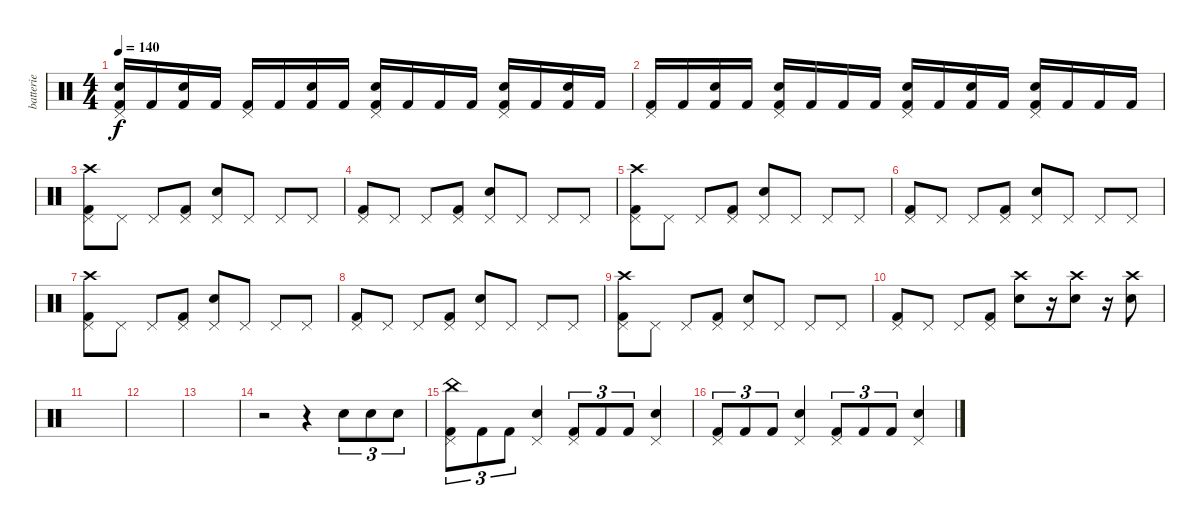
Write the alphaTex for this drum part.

\track ("batterie" "batterie") {instrument percussion}
\staff {score}
\articulation defaults
\ts (4 4)
\tempo 140
\clef neutral
\ks c
("Snare (hit) 2" "Kick (hit) 2" "Pedal Hi-Hat (hit)").16{dy f} "Kick (hit) 2".16 ("Snare (hit) 2" "Kick (hit) 2").16 "Kick (hit) 2".16 ("Kick (hit) 2" "Pedal Hi-Hat (hit)").16 "Kick (hit) 2".16 ("Snare (hit) 2" "Kick (hit) 2").16 "Kick (hit) 2".16 ("Snare (hit) 2" "Kick (hit) 2" "Pedal Hi-Hat (hit)").16 "Kick (hit) 2".16 "Kick (hit) 2".16 "Kick (hit) 2".16 ("Snare (hit) 2" "Kick (hit) 2" "Pedal Hi-Hat (hit)").16 "Kick (hit) 2".16 ("Snare (hit) 2" "Kick (hit) 2").16 "Kick (hit) 2".16 |
("Kick (hit) 2" "Pedal Hi-Hat (hit)").16 "Kick (hit) 2".16 ("Snare (hit) 2" "Kick (hit) 2").16 "Kick (hit) 2".16 ("Snare (hit) 2" "Kick (hit) 2" "Pedal Hi-Hat (hit)").16 "Kick (hit) 2".16 "Kick (hit) 2".16 "Kick (hit) 2".16 ("Snare (hit) 2" "Kick (hit) 2" "Pedal Hi-Hat (hit)").16 "Kick (hit) 2".16 ("Snare (hit) 2" "Kick (hit) 2").16 "Kick (hit) 2".16 ("Snare (hit) 2" "Kick (hit) 2" "Pedal Hi-Hat (hit)").16 "Kick (hit) 2".16 "Kick (hit) 2".16 "Kick (hit) 2".16 |
("Crash high (hit)" "Kick (hit) 2" "Pedal Hi-Hat (hit)").8 "Pedal Hi-Hat (hit)".8 "Pedal Hi-Hat (hit)".8 ("Kick (hit) 2" "Pedal Hi-Hat (hit)").8 ("Snare (hit) 2" "Pedal Hi-Hat (hit)").8 "Pedal Hi-Hat (hit)".8 "Pedal Hi-Hat (hit)".8 "Pedal Hi-Hat (hit)".8 |
("Kick (hit) 2" "Pedal Hi-Hat (hit)").8 "Pedal Hi-Hat (hit)".8 "Pedal Hi-Hat (hit)".8 ("Kick (hit) 2" "Pedal Hi-Hat (hit)").8 ("Snare (hit) 2" "Pedal Hi-Hat (hit)").8 "Pedal Hi-Hat (hit)".8 "Pedal Hi-Hat (hit)".8 "Pedal Hi-Hat (hit)".8 |
("Crash high (hit)" "Kick (hit) 2" "Pedal Hi-Hat (hit)").8 "Pedal Hi-Hat (hit)".8 "Pedal Hi-Hat (hit)".8 ("Kick (hit) 2" "Pedal Hi-Hat (hit)").8 ("Snare (hit) 2" "Pedal Hi-Hat (hit)").8 "Pedal Hi-Hat (hit)".8 "Pedal Hi-Hat (hit)".8 "Pedal Hi-Hat (hit)".8 |
("Kick (hit) 2" "Pedal Hi-Hat (hit)").8 "Pedal Hi-Hat (hit)".8 "Pedal Hi-Hat (hit)".8 ("Kick (hit) 2" "Pedal Hi-Hat (hit)").8 ("Snare (hit) 2" "Pedal Hi-Hat (hit)").8 "Pedal Hi-Hat (hit)".8 "Pedal Hi-Hat (hit)".8 "Pedal Hi-Hat (hit)".8 |
("Crash high (hit)" "Kick (hit) 2" "Pedal Hi-Hat (hit)").8 "Pedal Hi-Hat (hit)".8 "Pedal Hi-Hat (hit)".8 ("Kick (hit) 2" "Pedal Hi-Hat (hit)").8 ("Snare (hit) 2" "Pedal Hi-Hat (hit)").8 "Pedal Hi-Hat (hit)".8 "Pedal Hi-Hat (hit)".8 "Pedal Hi-Hat (hit)".8 |
("Kick (hit) 2" "Pedal Hi-Hat (hit)").8 "Pedal Hi-Hat (hit)".8 "Pedal Hi-Hat (hit)".8 ("Kick (hit) 2" "Pedal Hi-Hat (hit)").8 ("Snare (hit) 2" "Pedal Hi-Hat (hit)").8 "Pedal Hi-Hat (hit)".8 "Pedal Hi-Hat (hit)".8 "Pedal Hi-Hat (hit)".8 |
("Crash high (hit)" "Kick (hit) 2" "Pedal Hi-Hat (hit)").8 "Pedal Hi-Hat (hit)".8 "Pedal Hi-Hat (hit)".8 ("Kick (hit) 2" "Pedal Hi-Hat (hit)").8 ("Snare (hit) 2" "Pedal Hi-Hat (hit)").8 "Pedal Hi-Hat (hit)".8 "Pedal Hi-Hat (hit)".8 "Pedal Hi-Hat (hit)".8 |
("Kick (hit) 2" "Pedal Hi-Hat (hit)").8 "Pedal Hi-Hat (hit)".8 "Pedal Hi-Hat (hit)".8 ("Kick (hit) 2" "Pedal Hi-Hat (hit)").8 ("Crash high (hit)" "Snare (hit) 2").8 r.16 ("Crash high (hit)" "Snare (hit) 2").8 r.16 ("Crash high (hit)" "Snare (hit) 2").8 |
|
|
|
r.2 r.4 "Snare (hit) 2".8{tu (3 2)} "Snare (hit) 2".8{tu (3 2)} "Snare (hit) 2".8{tu (3 2)} |
("China (hit)" "Kick (hit) 2" "Pedal Hi-Hat (hit)").8{tu (3 2)} "Kick (hit) 2".8{tu (3 2)} "Kick (hit) 2".8{tu (3 2)} ("Snare (hit) 2" "Pedal Hi-Hat (hit)").4 ("Kick (hit) 2" "Pedal Hi-Hat (hit)").8{tu (3 2)} "Kick (hit) 2".8{tu (3 2)} "Kick (hit) 2".8{tu (3 2)} ("Snare (hit) 2" "Pedal Hi-Hat (hit)").4 |
("Kick (hit) 2" "Pedal Hi-Hat (hit)").8{tu (3 2)} "Kick (hit) 2".8{tu (3 2)} "Kick (hit) 2".8{tu (3 2)} ("Snare (hit) 2" "Pedal Hi-Hat (hit)").4 ("Kick (hit) 2" "Pedal Hi-Hat (hit)").8{tu (3 2)} "Kick (hit) 2".8{tu (3 2)} "Kick (hit) 2".8{tu (3 2)} ("Snare (hit) 2" "Pedal Hi-Hat (hit)").4
